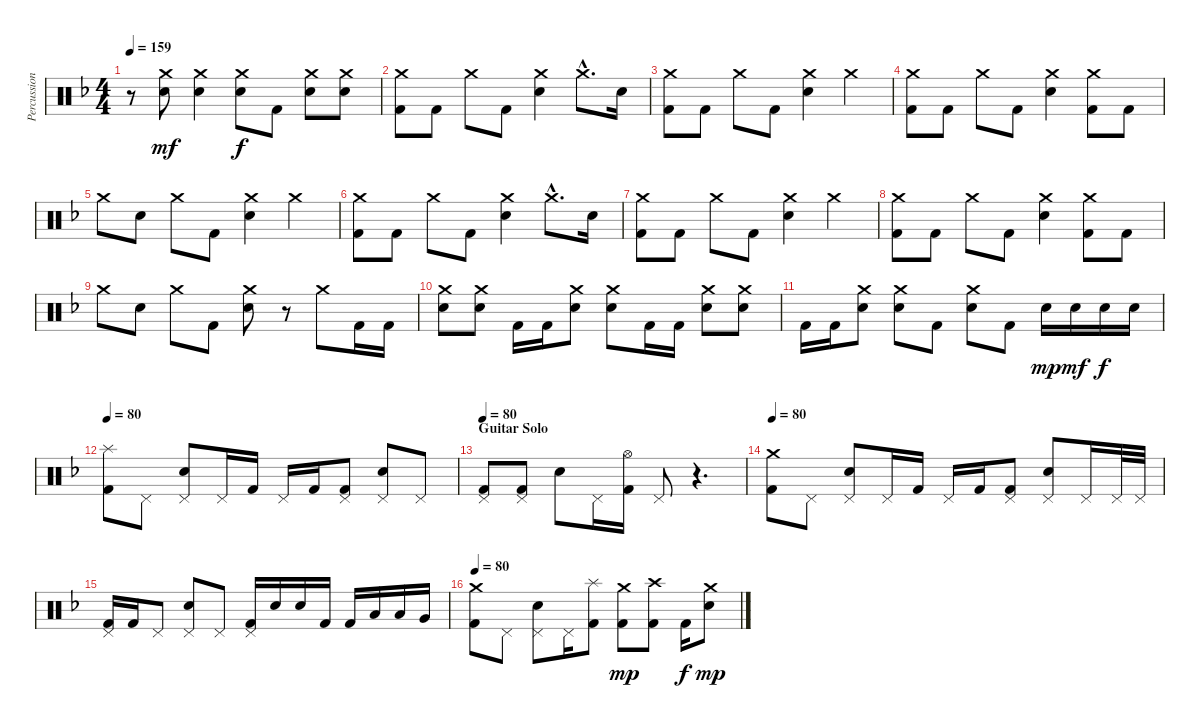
\track ("Percussion" "Percussion") {instrument percussion}
\staff {score}
\articulation defaults
\ts (4 4)
\tempo 159
\clef neutral
\ks f
r.8{dy mf} ("Crash medium (hit)" "Electric Snare (hit)").8 ("Crash medium (hit)" "Electric Snare (hit)").4 ("Crash medium (hit)" "Electric Snare (hit)").8{dy f} "Kick (hit) 2".8 ("Crash medium (hit)" "Electric Snare (hit)").8 ("Crash medium (hit)" "Electric Snare (hit)").8 |
("Crash medium (hit)" "Kick (hit) 2").8 "Kick (hit) 2".8 "Crash medium (hit)".8 "Kick (hit) 2".8 ("Crash medium (hit)" "Electric Snare (hit)").4 "Crash medium (hit)"{hac}.8{d} "Electric Snare (hit)".16 |
("Crash medium (hit)" "Kick (hit) 2").8 "Kick (hit) 2".8 "Crash medium (hit)".8 "Kick (hit) 2".8 ("Crash medium (hit)" "Electric Snare (hit)").4 "Crash medium (hit)".4 |
("Crash medium (hit)" "Kick (hit) 2").8 "Kick (hit) 2".8 "Crash medium (hit)".8 "Kick (hit) 2".8 ("Crash medium (hit)" "Electric Snare (hit)").4 ("Crash medium (hit)" "Kick (hit) 2").8 "Kick (hit) 2".8 |
"Crash medium (hit)".8 "Electric Snare (hit)".8 "Crash medium (hit)".8 "Kick (hit) 2".8 ("Crash medium (hit)" "Electric Snare (hit)").4 "Crash medium (hit)".4 |
("Crash medium (hit)" "Kick (hit) 2").8 "Kick (hit) 2".8 "Crash medium (hit)".8 "Kick (hit) 2".8 ("Crash medium (hit)" "Electric Snare (hit)").4 "Crash medium (hit)"{hac}.8{d} "Electric Snare (hit)".16 |
("Crash medium (hit)" "Kick (hit) 2").8 "Kick (hit) 2".8 "Crash medium (hit)".8 "Kick (hit) 2".8 ("Crash medium (hit)" "Electric Snare (hit)").4 "Crash medium (hit)".4 |
("Crash medium (hit)" "Kick (hit) 2").8 "Kick (hit) 2".8 "Crash medium (hit)".8 "Kick (hit) 2".8 ("Crash medium (hit)" "Electric Snare (hit)").4 ("Crash medium (hit)" "Kick (hit) 2").8 "Kick (hit) 2".8 |
"Crash medium (hit)".8 "Electric Snare (hit)".8 "Crash medium (hit)".8 "Kick (hit) 2".8 ("Crash medium (hit)" "Electric Snare (hit)").8 r.8 "Crash medium (hit)".8 "Kick (hit) 2".16 "Kick (hit) 2".16 |
("Crash medium (hit)" "Electric Snare (hit)").8 ("Crash medium (hit)" "Electric Snare (hit)").8 "Kick (hit) 2".16 "Kick (hit) 2".16 ("Crash medium (hit)" "Electric Snare (hit)").8 ("Crash medium (hit)" "Electric Snare (hit)").8 "Kick (hit) 2".16 "Kick (hit) 2".16 ("Crash medium (hit)" "Electric Snare (hit)").8 ("Crash medium (hit)" "Electric Snare (hit)").8 |
"Kick (hit) 2".16 "Kick (hit) 2".16 ("Crash medium (hit)" "Electric Snare (hit)").8 ("Crash medium (hit)" "Electric Snare (hit)").8 "Kick (hit) 2".8 ("Crash medium (hit)" "Electric Snare (hit)").8 "Kick (hit) 2".8 "Electric Snare (hit)".16{dy mp} "Electric Snare (hit)".16{dy mf} "Electric Snare (hit)".16{dy f} "Electric Snare (hit)".16 |
\tempo 80
("Splash (hit)" "Kick (hit) 2").8 "Pedal Hi-Hat (hit)".8 ("Pedal Hi-Hat (hit)" "Electric Snare (hit)").8 "Pedal Hi-Hat (hit)".16 "Kick (hit) 2".16 "Pedal Hi-Hat (hit)".16 "Kick (hit) 2".16 ("Pedal Hi-Hat (hit)" "Kick (hit) 2").8 ("Pedal Hi-Hat (hit)" "Electric Snare (hit)").8 "Pedal Hi-Hat (hit)".8 |
\section ("" "Guitar Solo")
\tempo 80
("Pedal Hi-Hat (hit)" "Kick (hit) 2").8 ("Pedal Hi-Hat (hit)" "Kick (hit) 2").8 "Electric Snare (hit)".8 "Pedal Hi-Hat (hit)".16 ("Hi-Hat (open)" "Kick (hit) 2").16 "Pedal Hi-Hat (hit)".8 r.4{d} |
\tempo 80
("Crash medium (hit)" "Kick (hit) 2").8 "Pedal Hi-Hat (hit)".8 ("Pedal Hi-Hat (hit)" "Electric Snare (hit)").8 "Pedal Hi-Hat (hit)".16 "Kick (hit) 2".16 "Pedal Hi-Hat (hit)".16 "Kick (hit) 2".16 ("Pedal Hi-Hat (hit)" "Kick (hit) 2").8 ("Pedal Hi-Hat (hit)" "Electric Snare (hit)").8 "Pedal Hi-Hat (hit)".16 "Pedal Hi-Hat (hit)".32 "Pedal Hi-Hat (hit)".32 |
("Pedal Hi-Hat (hit)" "Kick (hit) 2").16 "Kick (hit) 2".16 "Pedal Hi-Hat (hit)".8 ("Pedal Hi-Hat (hit)" "Electric Snare (hit)").8 "Pedal Hi-Hat (hit)".8 ("Pedal Hi-Hat (hit)" "Kick (hit) 2").16 "Electric Snare (hit)".16 "Electric Snare (hit)".16 "Kick (hit) 2".16 "Kick (hit) 2".16 "Low Tom (hit)".16 "Low Tom (hit)".16 "Very Low Tom (hit)".16 |
\tempo 80
("Crash medium (hit)" "Kick (hit) 2").8 "Pedal Hi-Hat (hit)".8 ("Pedal Hi-Hat (hit)" "Electric Snare (hit)").8 "Pedal Hi-Hat (hit)".16 ("Splash (hit)" "Kick (hit) 2").8 ("Crash medium (hit)" "Kick (hit) 2").8{dy mp} ("Crash high (hit)" "Kick (hit) 2").8 "Kick (hit) 2".16{dy f} ("Crash medium (hit)" "Electric Snare (hit)").8{dy mp}
